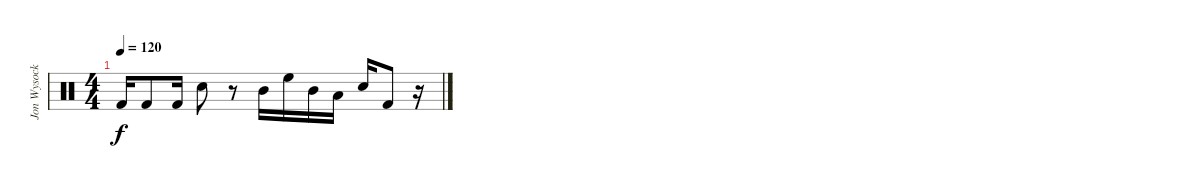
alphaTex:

\track ("Jon Wysocki" "Jon Wysock") {instrument percussion}
\staff {score}
\articulation defaults
\ts (4 4)
\tempo 120
\clef neutral
\ks c "Kick (hit) 2".16{dy f} "Kick (hit) 2".8 "Kick (hit) 2".16 "Electric Snare (hit)".8
r.8 "Mid Tom (hit)".16 "High Floor Tom (hit)".16 "Mid Tom (hit)".16 "Low Tom (hit)".16 "Electric Snare (hit)".16 "Kick (hit) 2".8 r.16
